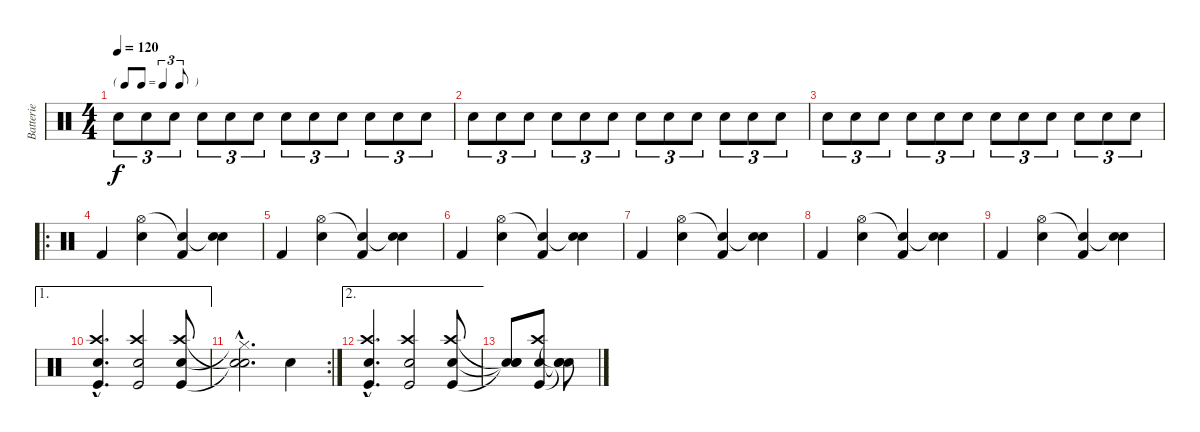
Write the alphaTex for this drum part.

\track ("Batterie" "Batterie") {instrument percussion}
\staff {score}
\articulation defaults
\ts (4 4)
\tf triplet8th
\tempo 120
\clef neutral
\ks c "Snare (hit) 2".8{tu (3 2) dy f volume 13} "Snare (hit) 2".8{tu (3 2)} "Snare (hit) 2".8{tu (3 2)} "Snare (hit) 2".8{tu (3 2)} "Snare (hit) 2".8{tu (3 2)} "Snare (hit) 2".8{tu (3 2)} "Snare (hit) 2".8{tu (3 2)} "Snare (hit) 2".8{tu (3 2)} "Snare (hit) 2".8{tu (3 2)} "Snare (hit) 2".8{tu (3 2)} "Snare (hit) 2".8{tu (3 2)} "Snare (hit) 2".8{tu (3 2)}
|
"Snare (hit) 2".8{tu (3 2)} "Snare (hit) 2".8{tu (3 2)} "Snare (hit) 2".8{tu (3 2)} "Snare (hit) 2".8{tu (3 2)} "Snare (hit) 2".8{tu (3 2)} "Snare (hit) 2".8{tu (3 2)} "Snare (hit) 2".8{tu (3 2)} "Snare (hit) 2".8{tu (3 2)} "Snare (hit) 2".8{tu (3 2)} "Snare (hit) 2".8{tu (3 2)} "Snare (hit) 2".8{tu (3 2)} "Snare (hit) 2".8{tu (3 2)} |
"Snare (hit) 2".8{tu (3 2)} "Snare (hit) 2".8{tu (3 2)} "Snare (hit) 2".8{tu (3 2)} "Snare (hit) 2".8{tu (3 2)} "Snare (hit) 2".8{tu (3 2)} "Snare (hit) 2".8{tu (3 2)} "Snare (hit) 2".8{tu (3 2)} "Snare (hit) 2".8{tu (3 2)} "Snare (hit) 2".8{tu (3 2)} "Snare (hit) 2".8{tu (3 2)} "Snare (hit) 2".8{tu (3 2)} "Snare (hit) 2".8{tu (3 2)} |
\ro "Kick (hit) 2".4
("Hi-Hat (open)" "Snare (hit) 2").4 ("Snare (hit)"{t} "Kick (hit) 2").4 ("Snare (hit)"{t} "Snare (hit) 2").4 |
"Kick (hit) 2".4 ("Hi-Hat (open)" "Snare (hit) 2").4 ("Snare (hit)"{t} "Kick (hit) 2").4 ("Snare (hit)"{t} "Snare (hit) 2").4 |
"Kick (hit) 2".4 ("Hi-Hat (open)" "Snare (hit) 2").4 ("Snare (hit)"{t} "Kick (hit) 2").4 ("Snare (hit)"{t} "Snare (hit) 2").4 |
"Kick (hit) 2".4 ("Hi-Hat (open)" "Snare (hit) 2").4 ("Snare (hit)"{t} "Kick (hit) 2").4 ("Snare (hit)"{t} "Snare (hit) 2").4 |
"Kick (hit) 2".4 ("Hi-Hat (open)" "Snare (hit) 2").4 ("Snare (hit)"{t} "Kick (hit) 2").4 ("Snare (hit)"{t} "Snare (hit) 2").4 |
"Kick (hit) 2".4 ("Hi-Hat (open)" "Snare (hit) 2").4 ("Snare (hit)"{t} "Kick (hit) 2").4 ("Snare (hit)"{t} "Snare (hit) 2").4 |
\ae 1
("Crash high (hit)"{hac} "Snare (hit) 2"{hac} "Kick (hit)"{hac}).4{d} ("Crash high (hit)" "Snare (hit) 2" "Kick (hit)").2 ("Crash high (hit)" "Snare (hit) 2" "Kick (hit)").8 |
\rc 2
("Snare (hit)"{hac t} "Hi-Hat (closed)"{hac t} "Snare (hit)"{hac t}).2{d} "Snare (hit) 2".4 |
\ae 2
("Crash high (hit)"{hac} "Snare (hit) 2"{hac} "Kick (hit)"{hac}).4{d} ("Crash high (hit)" "Snare (hit) 2" "Kick (hit)").2 ("Crash high (hit)" "Snare (hit) 2" "Kick (hit)").8 |
("Snare (hit)"{t} "Snare (hit)"{t} "Snare (hit)"{t}).8 ("Crash high (hit)" "Snare (hit) 2" "Kick (hit)").8 ("Snare (hit)"{t} "Snare (hit)"{t} "Snare (hit)"{t}).8
